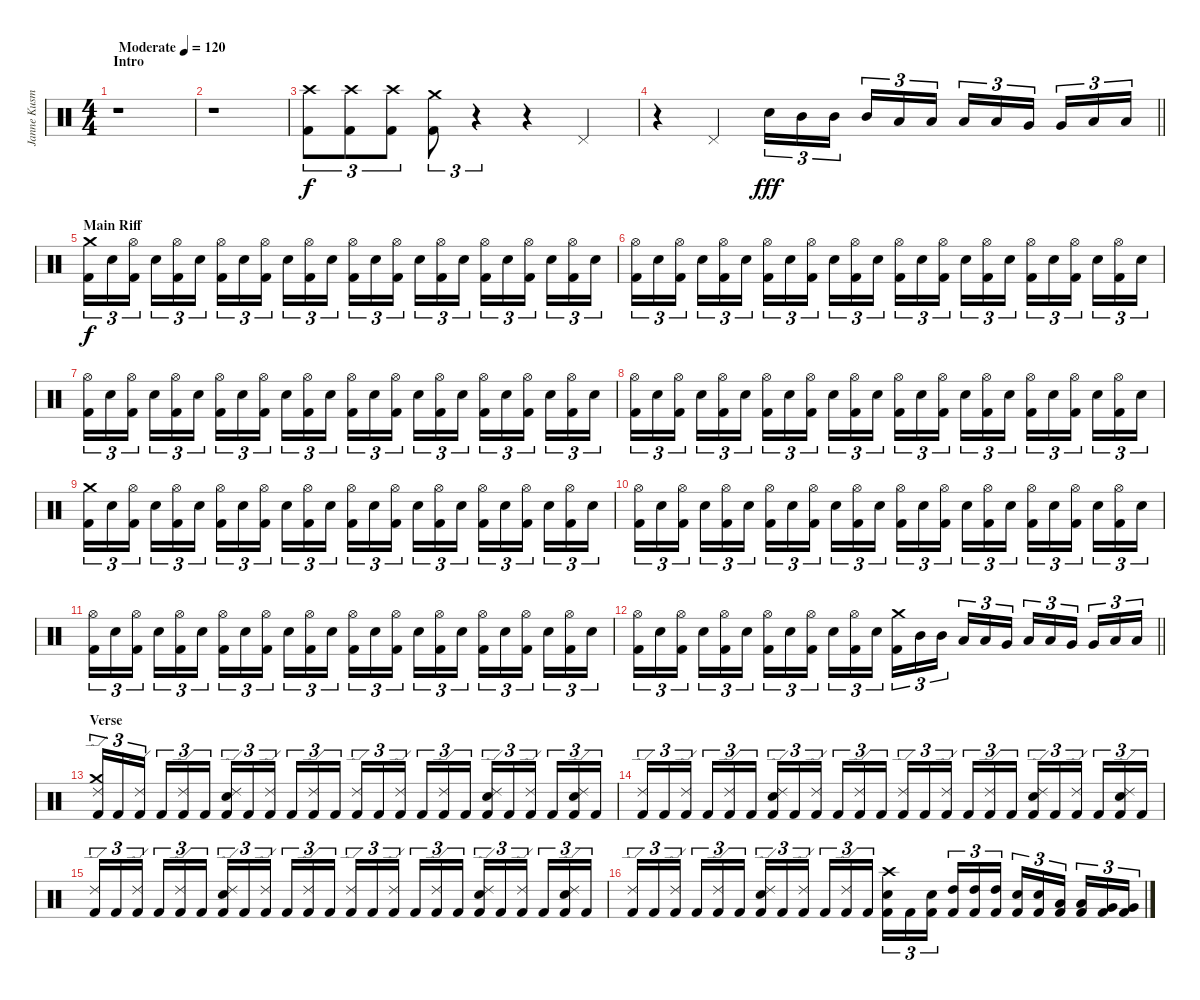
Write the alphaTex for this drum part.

\track ("Janne Kusmin" "Janne Kusm") {instrument percussion}
\staff {score}
\articulation defaults
\ts (4 4)
\section ("" "Intro")
\tempo (120 "Moderate")
\clef neutral
\ks c
r.1{dy f} |
r.1 |
("Crash high (hit)" "Kick (hit) 2").8{tu (3 2)} ("Crash high (hit)" "Kick (hit) 2").8{tu (3 2)} ("Crash high (hit)" "Kick (hit) 2").8{tu (3 2)} ("Crash medium (hit)" "Kick (hit) 2").8{tu (3 2)} r.4{tu (3 2)} r.4 "Pedal Hi-Hat (hit)".4 |
\barLineRight lightlight
r.4 "Pedal Hi-Hat (hit)".4 "Snare (hit) 2".16{tu (3 2) dy fff} "Mid Tom (hit)".16{tu (3 2)} "Mid Tom (hit)".16{tu (3 2) beam splitsecondary} "Mid Tom (hit)".16{tu (3 2)} "Low Tom (hit)".16{tu (3 2)} "Low Tom (hit)".16{tu (3 2)} "Low Tom (hit)".16{tu (3 2)} "Low Tom (hit)".16{tu (3 2)} "Very Low Tom (hit)".16{tu (3 2) beam splitsecondary} "Very Low Tom (hit)".16{tu (3 2)} "Low Floor Tom (hit)".16{tu (3 2)} "Low Floor Tom (hit)".16{tu (3 2)} |
\section ("" "Main Riff")
("Crash medium (hit)" "Kick (hit) 2").16{tu (3 2) dy f} "Snare (hit) 2".16{tu (3 2)} ("Hi-Hat (open)" "Kick (hit) 2").16{tu (3 2) beam splitsecondary} "Snare (hit) 2".16{tu (3 2)} ("Hi-Hat (open)" "Kick (hit) 2").16{tu (3 2)} "Snare (hit) 2".16{tu (3 2)} ("Hi-Hat (open)" "Kick (hit) 2").16{tu (3 2)} "Snare (hit) 2".16{tu (3 2)} ("Hi-Hat (open)" "Kick (hit) 2").16{tu (3 2) beam splitsecondary} "Snare (hit) 2".16{tu (3 2)} ("Hi-Hat (open)" "Kick (hit) 2").16{tu (3 2)} "Snare (hit) 2".16{tu (3 2)} ("Hi-Hat (open)" "Kick (hit) 2").16{tu (3 2)} "Snare (hit) 2".16{tu (3 2)} ("Hi-Hat (open)" "Kick (hit) 2").16{tu (3 2) beam splitsecondary} "Snare (hit) 2".16{tu (3 2)} ("Hi-Hat (open)" "Kick (hit) 2").16{tu (3 2)} "Snare (hit) 2".16{tu (3 2)} ("Hi-Hat (open)" "Kick (hit) 2").16{tu (3 2)} "Snare (hit) 2".16{tu (3 2)} ("Hi-Hat (open)" "Kick (hit) 2").16{tu (3 2) beam splitsecondary} "Snare (hit) 2".16{tu (3 2)} ("Hi-Hat (open)" "Kick (hit) 2").16{tu (3 2)} "Snare (hit) 2".16{tu (3 2)} |
("Hi-Hat (open)" "Kick (hit) 2").16{tu (3 2)} "Snare (hit) 2".16{tu (3 2)} ("Hi-Hat (open)" "Kick (hit) 2").16{tu (3 2) beam splitsecondary} "Snare (hit) 2".16{tu (3 2)} ("Hi-Hat (open)" "Kick (hit) 2").16{tu (3 2)} "Snare (hit) 2".16{tu (3 2)} ("Hi-Hat (open)" "Kick (hit) 2").16{tu (3 2)} "Snare (hit) 2".16{tu (3 2)} ("Hi-Hat (open)" "Kick (hit) 2").16{tu (3 2) beam splitsecondary} "Snare (hit) 2".16{tu (3 2)} ("Hi-Hat (open)" "Kick (hit) 2").16{tu (3 2)} "Snare (hit) 2".16{tu (3 2)} ("Hi-Hat (open)" "Kick (hit) 2").16{tu (3 2)} "Snare (hit) 2".16{tu (3 2)} ("Hi-Hat (open)" "Kick (hit) 2").16{tu (3 2) beam splitsecondary} "Snare (hit) 2".16{tu (3 2)} ("Hi-Hat (open)" "Kick (hit) 2").16{tu (3 2)} "Snare (hit) 2".16{tu (3 2)} ("Hi-Hat (open)" "Kick (hit) 2").16{tu (3 2)} "Snare (hit) 2".16{tu (3 2)} ("Hi-Hat (open)" "Kick (hit) 2").16{tu (3 2) beam splitsecondary} "Snare (hit) 2".16{tu (3 2)} ("Hi-Hat (open)" "Kick (hit) 2").16{tu (3 2)} "Snare (hit) 2".16{tu (3 2)} |
("Hi-Hat (open)" "Kick (hit) 2").16{tu (3 2)} "Snare (hit) 2".16{tu (3 2)} ("Hi-Hat (open)" "Kick (hit) 2").16{tu (3 2) beam splitsecondary} "Snare (hit) 2".16{tu (3 2)} ("Hi-Hat (open)" "Kick (hit) 2").16{tu (3 2)} "Snare (hit) 2".16{tu (3 2)} ("Hi-Hat (open)" "Kick (hit) 2").16{tu (3 2)} "Snare (hit) 2".16{tu (3 2)} ("Hi-Hat (open)" "Kick (hit) 2").16{tu (3 2) beam splitsecondary} "Snare (hit) 2".16{tu (3 2)} ("Hi-Hat (open)" "Kick (hit) 2").16{tu (3 2)} "Snare (hit) 2".16{tu (3 2)} ("Hi-Hat (open)" "Kick (hit) 2").16{tu (3 2)} "Snare (hit) 2".16{tu (3 2)} ("Hi-Hat (open)" "Kick (hit) 2").16{tu (3 2) beam splitsecondary} "Snare (hit) 2".16{tu (3 2)} ("Hi-Hat (open)" "Kick (hit) 2").16{tu (3 2)} "Snare (hit) 2".16{tu (3 2)} ("Hi-Hat (open)" "Kick (hit) 2").16{tu (3 2)} "Snare (hit) 2".16{tu (3 2)} ("Hi-Hat (open)" "Kick (hit) 2").16{tu (3 2) beam splitsecondary} "Snare (hit) 2".16{tu (3 2)} ("Hi-Hat (open)" "Kick (hit) 2").16{tu (3 2)} "Snare (hit) 2".16{tu (3 2)} |
("Hi-Hat (open)" "Kick (hit) 2").16{tu (3 2)} "Snare (hit) 2".16{tu (3 2)} ("Hi-Hat (open)" "Kick (hit) 2").16{tu (3 2) beam splitsecondary} "Snare (hit) 2".16{tu (3 2)} ("Hi-Hat (open)" "Kick (hit) 2").16{tu (3 2)} "Snare (hit) 2".16{tu (3 2)} ("Hi-Hat (open)" "Kick (hit) 2").16{tu (3 2)} "Snare (hit) 2".16{tu (3 2)} ("Hi-Hat (open)" "Kick (hit) 2").16{tu (3 2) beam splitsecondary} "Snare (hit) 2".16{tu (3 2)} ("Hi-Hat (open)" "Kick (hit) 2").16{tu (3 2)} "Snare (hit) 2".16{tu (3 2)} ("Hi-Hat (open)" "Kick (hit) 2").16{tu (3 2)} "Snare (hit) 2".16{tu (3 2)} ("Hi-Hat (open)" "Kick (hit) 2").16{tu (3 2) beam splitsecondary} "Snare (hit) 2".16{tu (3 2)} ("Hi-Hat (open)" "Kick (hit) 2").16{tu (3 2)} "Snare (hit) 2".16{tu (3 2)} ("Hi-Hat (open)" "Kick (hit) 2").16{tu (3 2)} "Snare (hit) 2".16{tu (3 2)} ("Hi-Hat (open)" "Kick (hit) 2").16{tu (3 2) beam splitsecondary} "Snare (hit) 2".16{tu (3 2)} ("Hi-Hat (open)" "Kick (hit) 2").16{tu (3 2)} "Snare (hit) 2".16{tu (3 2)} |
("Crash medium (hit)" "Kick (hit) 2").16{tu (3 2)} "Snare (hit) 2".16{tu (3 2)} ("Hi-Hat (open)" "Kick (hit) 2").16{tu (3 2) beam splitsecondary} "Snare (hit) 2".16{tu (3 2)} ("Hi-Hat (open)" "Kick (hit) 2").16{tu (3 2)} "Snare (hit) 2".16{tu (3 2)} ("Hi-Hat (open)" "Kick (hit) 2").16{tu (3 2)} "Snare (hit) 2".16{tu (3 2)} ("Hi-Hat (open)" "Kick (hit) 2").16{tu (3 2) beam splitsecondary} "Snare (hit) 2".16{tu (3 2)} ("Hi-Hat (open)" "Kick (hit) 2").16{tu (3 2)} "Snare (hit) 2".16{tu (3 2)} ("Hi-Hat (open)" "Kick (hit) 2").16{tu (3 2)} "Snare (hit) 2".16{tu (3 2)} ("Hi-Hat (open)" "Kick (hit) 2").16{tu (3 2) beam splitsecondary} "Snare (hit) 2".16{tu (3 2)} ("Hi-Hat (open)" "Kick (hit) 2").16{tu (3 2)} "Snare (hit) 2".16{tu (3 2)} ("Hi-Hat (open)" "Kick (hit) 2").16{tu (3 2)} "Snare (hit) 2".16{tu (3 2)} ("Hi-Hat (open)" "Kick (hit) 2").16{tu (3 2) beam splitsecondary} "Snare (hit) 2".16{tu (3 2)} ("Hi-Hat (open)" "Kick (hit) 2").16{tu (3 2)} "Snare (hit) 2".16{tu (3 2)} |
("Hi-Hat (open)" "Kick (hit) 2").16{tu (3 2)} "Snare (hit) 2".16{tu (3 2)} ("Hi-Hat (open)" "Kick (hit) 2").16{tu (3 2) beam splitsecondary} "Snare (hit) 2".16{tu (3 2)} ("Hi-Hat (open)" "Kick (hit) 2").16{tu (3 2)} "Snare (hit) 2".16{tu (3 2)} ("Hi-Hat (open)" "Kick (hit) 2").16{tu (3 2)} "Snare (hit) 2".16{tu (3 2)} ("Hi-Hat (open)" "Kick (hit) 2").16{tu (3 2) beam splitsecondary} "Snare (hit) 2".16{tu (3 2)} ("Hi-Hat (open)" "Kick (hit) 2").16{tu (3 2)} "Snare (hit) 2".16{tu (3 2)} ("Hi-Hat (open)" "Kick (hit) 2").16{tu (3 2)} "Snare (hit) 2".16{tu (3 2)} ("Hi-Hat (open)" "Kick (hit) 2").16{tu (3 2) beam splitsecondary} "Snare (hit) 2".16{tu (3 2)} ("Hi-Hat (open)" "Kick (hit) 2").16{tu (3 2)} "Snare (hit) 2".16{tu (3 2)} ("Hi-Hat (open)" "Kick (hit) 2").16{tu (3 2)} "Snare (hit) 2".16{tu (3 2)} ("Hi-Hat (open)" "Kick (hit) 2").16{tu (3 2) beam splitsecondary} "Snare (hit) 2".16{tu (3 2)} ("Hi-Hat (open)" "Kick (hit) 2").16{tu (3 2)} "Snare (hit) 2".16{tu (3 2)} |
("Hi-Hat (open)" "Kick (hit) 2").16{tu (3 2)} "Snare (hit) 2".16{tu (3 2)} ("Hi-Hat (open)" "Kick (hit) 2").16{tu (3 2) beam splitsecondary} "Snare (hit) 2".16{tu (3 2)} ("Hi-Hat (open)" "Kick (hit) 2").16{tu (3 2)} "Snare (hit) 2".16{tu (3 2)} ("Hi-Hat (open)" "Kick (hit) 2").16{tu (3 2)} "Snare (hit) 2".16{tu (3 2)} ("Hi-Hat (open)" "Kick (hit) 2").16{tu (3 2) beam splitsecondary} "Snare (hit) 2".16{tu (3 2)} ("Hi-Hat (open)" "Kick (hit) 2").16{tu (3 2)} "Snare (hit) 2".16{tu (3 2)} ("Hi-Hat (open)" "Kick (hit) 2").16{tu (3 2)} "Snare (hit) 2".16{tu (3 2)} ("Hi-Hat (open)" "Kick (hit) 2").16{tu (3 2) beam splitsecondary} "Snare (hit) 2".16{tu (3 2)} ("Hi-Hat (open)" "Kick (hit) 2").16{tu (3 2)} "Snare (hit) 2".16{tu (3 2)} ("Hi-Hat (open)" "Kick (hit) 2").16{tu (3 2)} "Snare (hit) 2".16{tu (3 2)} ("Hi-Hat (open)" "Kick (hit) 2").16{tu (3 2) beam splitsecondary} "Snare (hit) 2".16{tu (3 2)} ("Hi-Hat (open)" "Kick (hit) 2").16{tu (3 2)} "Snare (hit) 2".16{tu (3 2)} |
\barLineRight lightlight
("Hi-Hat (open)" "Kick (hit) 2").16{tu (3 2)} "Snare (hit) 2".16{tu (3 2)} ("Hi-Hat (open)" "Kick (hit) 2").16{tu (3 2) beam splitsecondary} "Snare (hit) 2".16{tu (3 2)} ("Hi-Hat (open)" "Kick (hit) 2").16{tu (3 2)} "Snare (hit) 2".16{tu (3 2)} ("Hi-Hat (open)" "Kick (hit) 2").16{tu (3 2)} "Snare (hit) 2".16{tu (3 2)} ("Hi-Hat (open)" "Kick (hit) 2").16{tu (3 2) beam splitsecondary} "Snare (hit) 2".16{tu (3 2)} ("Hi-Hat (open)" "Kick (hit) 2").16{tu (3 2)} "Snare (hit) 2".16{tu (3 2)} ("Crash medium (hit)" "Kick (hit) 2").16{tu (3 2)} "Mid Tom (hit)".16{tu (3 2)} "Mid Tom (hit)".16{tu (3 2) beam splitsecondary} "Low Tom (hit)".16{tu (3 2)} "Low Tom (hit)".16{tu (3 2)} "Very Low Tom (hit)".16{tu (3 2)} "Low Tom (hit)".16{tu (3 2)} "Low Tom (hit)".16{tu (3 2)} "Very Low Tom (hit)".16{tu (3 2) beam splitsecondary} "Very Low Tom (hit)".16{tu (3 2)} "Low Floor Tom (hit)".16{tu (3 2)} "Low Floor Tom (hit)".16{tu (3 2)} |
\section ("" "Verse")
("Crash medium (hit)" "Ride (edge) 2" "Kick (hit) 2").16{tu (3 2)} "Kick (hit) 2".16{tu (3 2)} ("Ride (edge) 2" "Kick (hit) 2").16{tu (3 2) beam splitsecondary} "Kick (hit) 2".16{tu (3 2)} ("Ride (edge) 2" "Kick (hit) 2").16{tu (3 2)} "Kick (hit) 2".16{tu (3 2)} ("Ride (edge) 2" "Snare (hit) 2" "Kick (hit) 2").16{tu (3 2)} "Kick (hit) 2".16{tu (3 2)} ("Ride (edge) 2" "Kick (hit) 2").16{tu (3 2) beam splitsecondary} "Kick (hit) 2".16{tu (3 2)} ("Ride (edge) 2" "Kick (hit) 2").16{tu (3 2)} "Kick (hit) 2".16{tu (3 2)} ("Ride (edge) 2" "Kick (hit) 2").16{tu (3 2)} "Kick (hit) 2".16{tu (3 2)} ("Ride (edge) 2" "Kick (hit) 2").16{tu (3 2) beam splitsecondary} "Kick (hit) 2".16{tu (3 2)} ("Ride (edge) 2" "Kick (hit) 2").16{tu (3 2)} "Kick (hit) 2".16{tu (3 2)} ("Ride (edge) 2" "Snare (hit) 2" "Kick (hit) 2").16{tu (3 2)} "Kick (hit) 2".16{tu (3 2)} ("Ride (edge) 2" "Kick (hit) 2").16{tu (3 2) beam splitsecondary} "Kick (hit) 2".16{tu (3 2)} ("Ride (edge) 2" "Snare (hit) 2" "Kick (hit) 2").16{tu (3 2)} "Kick (hit) 2".16{tu (3 2)} |
("Ride (edge) 2" "Kick (hit) 2").16{tu (3 2)} "Kick (hit) 2".16{tu (3 2)} ("Ride (edge) 2" "Kick (hit) 2").16{tu (3 2) beam splitsecondary} "Kick (hit) 2".16{tu (3 2)} ("Ride (edge) 2" "Kick (hit) 2").16{tu (3 2)} "Kick (hit) 2".16{tu (3 2)} ("Ride (edge) 2" "Snare (hit) 2" "Kick (hit) 2").16{tu (3 2)} "Kick (hit) 2".16{tu (3 2)} ("Ride (edge) 2" "Kick (hit) 2").16{tu (3 2) beam splitsecondary} "Kick (hit) 2".16{tu (3 2)} ("Ride (edge) 2" "Kick (hit) 2").16{tu (3 2)} "Kick (hit) 2".16{tu (3 2)} ("Ride (edge) 2" "Kick (hit) 2").16{tu (3 2)} "Kick (hit) 2".16{tu (3 2)} ("Ride (edge) 2" "Kick (hit) 2").16{tu (3 2) beam splitsecondary} "Kick (hit) 2".16{tu (3 2)} ("Ride (edge) 2" "Kick (hit) 2").16{tu (3 2)} "Kick (hit) 2".16{tu (3 2)} ("Ride (edge) 2" "Snare (hit) 2" "Kick (hit) 2").16{tu (3 2)} "Kick (hit) 2".16{tu (3 2)} ("Ride (edge) 2" "Kick (hit) 2").16{tu (3 2) beam splitsecondary} "Kick (hit) 2".16{tu (3 2)} ("Ride (edge) 2" "Snare (hit) 2" "Kick (hit) 2").16{tu (3 2)} "Kick (hit) 2".16{tu (3 2)} |
("Ride (edge) 2" "Kick (hit) 2").16{tu (3 2)} "Kick (hit) 2".16{tu (3 2)} ("Ride (edge) 2" "Kick (hit) 2").16{tu (3 2) beam splitsecondary} "Kick (hit) 2".16{tu (3 2)} ("Ride (edge) 2" "Kick (hit) 2").16{tu (3 2)} "Kick (hit) 2".16{tu (3 2)} ("Ride (edge) 2" "Snare (hit) 2" "Kick (hit) 2").16{tu (3 2)} "Kick (hit) 2".16{tu (3 2)} ("Ride (edge) 2" "Kick (hit) 2").16{tu (3 2) beam splitsecondary} "Kick (hit) 2".16{tu (3 2)} ("Ride (edge) 2" "Kick (hit) 2").16{tu (3 2)} "Kick (hit) 2".16{tu (3 2)} ("Ride (edge) 2" "Kick (hit) 2").16{tu (3 2)} "Kick (hit) 2".16{tu (3 2)} ("Ride (edge) 2" "Kick (hit) 2").16{tu (3 2) beam splitsecondary} "Kick (hit) 2".16{tu (3 2)} ("Ride (edge) 2" "Kick (hit) 2").16{tu (3 2)} "Kick (hit) 2".16{tu (3 2)} ("Ride (edge) 2" "Snare (hit) 2" "Kick (hit) 2").16{tu (3 2)} "Kick (hit) 2".16{tu (3 2)} ("Ride (edge) 2" "Kick (hit) 2").16{tu (3 2) beam splitsecondary} "Kick (hit) 2".16{tu (3 2)} ("Ride (edge) 2" "Snare (hit) 2" "Kick (hit) 2").16{tu (3 2)} "Kick (hit) 2".16{tu (3 2)} |
("Ride (edge) 2" "Kick (hit) 2").16{tu (3 2)} "Kick (hit) 2".16{tu (3 2)} ("Ride (edge) 2" "Kick (hit) 2").16{tu (3 2) beam splitsecondary} "Kick (hit) 2".16{tu (3 2)} ("Ride (edge) 2" "Kick (hit) 2").16{tu (3 2)} "Kick (hit) 2".16{tu (3 2)} ("Ride (edge) 2" "Snare (hit) 2" "Kick (hit) 2").16{tu (3 2)} "Kick (hit) 2".16{tu (3 2)} ("Ride (edge) 2" "Kick (hit) 2").16{tu (3 2) beam splitsecondary} "Kick (hit) 2".16{tu (3 2)} ("Ride (edge) 2" "Kick (hit) 2").16{tu (3 2)} "Kick (hit) 2".16{tu (3 2)} ("Crash high (hit)" "Snare (hit) 2" "Kick (hit) 2").16{tu (3 2)} "Kick (hit) 2".16{tu (3 2)} ("Snare (hit) 2" "Kick (hit) 2").16{tu (3 2) beam splitsecondary} ("High Tom (hit)" "Kick (hit) 2").16{tu (3 2)} ("High Tom (hit)" "Kick (hit) 2").16{tu (3 2)} ("High Tom (hit)" "Kick (hit) 2").16{tu (3 2)} ("Snare (hit) 2" "Kick (hit) 2").16{tu (3 2)} ("Snare (hit) 2" "Kick (hit) 2").16{tu (3 2)} ("Low Tom (hit)" "Kick (hit) 2").16{tu (3 2) beam splitsecondary} ("Low Tom (hit)" "Kick (hit) 2").16{tu (3 2)} ("Very Low Tom (hit)" "Kick (hit) 2").16{tu (3 2)} ("Very Low Tom (hit)" "Kick (hit) 2").16{tu (3 2)}
